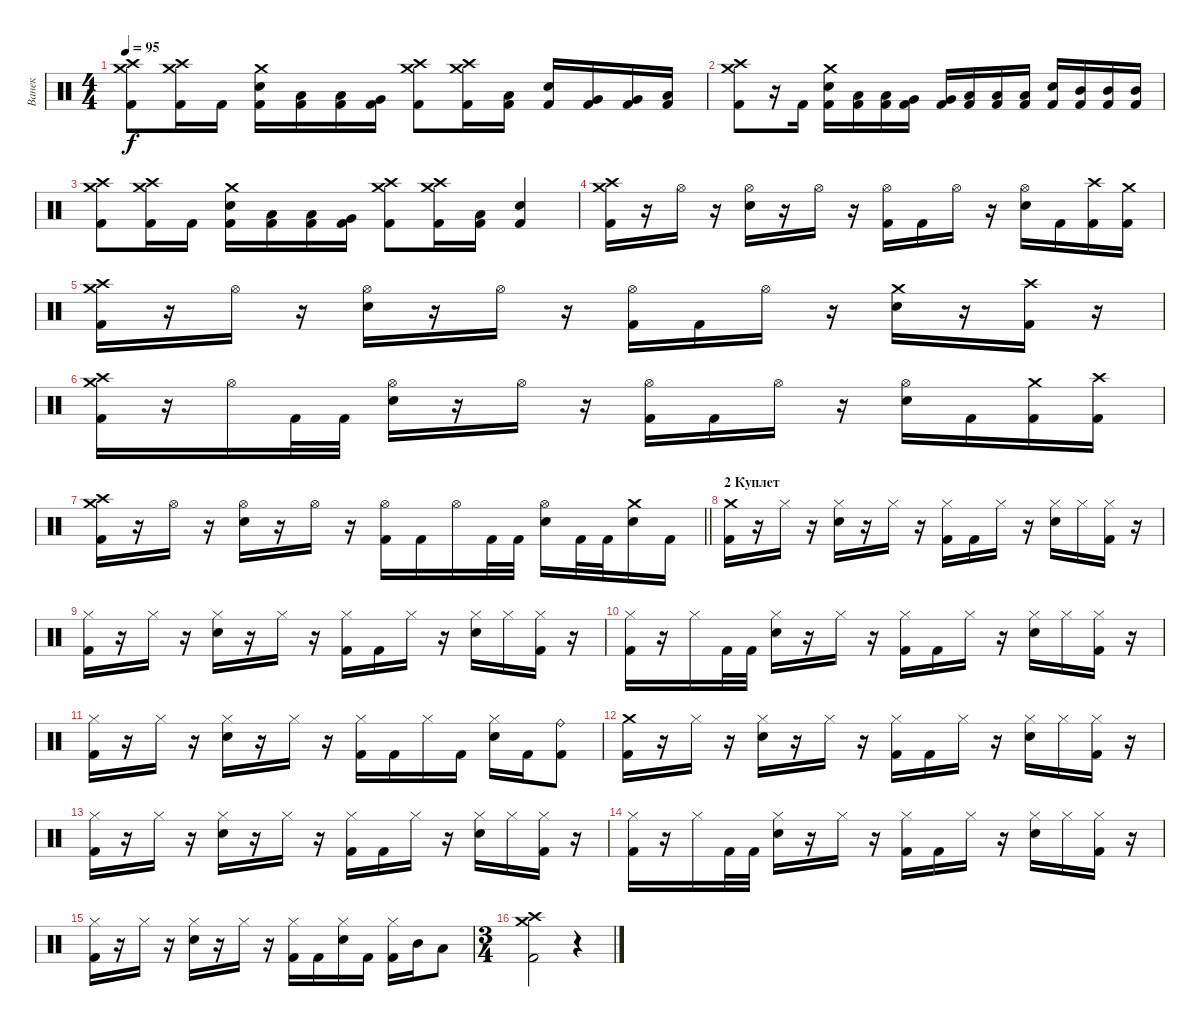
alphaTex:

\track ("Ванек" "Ванек") {instrument percussion}
\staff {score}
\articulation defaults
\ts (4 4)
\tempo 95
\clef neutral
\ks c
("Crash medium (hit)" "Crash high (hit)" "Kick (hit) 2").8{dy f} ("Crash medium (hit)" "Crash high (hit)" "Kick (hit) 2").16 "Kick (hit) 2".16 ("Crash medium (hit)" "Snare (hit) 2" "Kick (hit) 2").16 ("Low Floor Tom (hit)" "Kick (hit) 2").16 ("Low Floor Tom (hit)" "Kick (hit) 2").16 ("Very Low Tom (hit)" "Kick (hit) 2").16 ("Crash medium (hit)" "Crash high (hit)" "Kick (hit) 2").8 ("Crash medium (hit)" "Crash high (hit)" "Kick (hit) 2").16 ("Low Floor Tom (hit)" "Kick (hit) 2").16 ("Snare (hit) 2" "Kick (hit) 2").16 ("Very Low Tom (hit)" "Kick (hit) 2").16 ("Very Low Tom (hit)" "Kick (hit) 2").16 ("Low Tom (hit)" "Kick (hit) 2").16 |
("Crash medium (hit)" "Crash high (hit)" "Kick (hit) 2").8 r.16 "Kick (hit) 2".16 ("Crash medium (hit)" "Snare (hit) 2" "Kick (hit) 2").16 ("Low Floor Tom (hit)" "Kick (hit) 2").16 ("Low Floor Tom (hit)" "Kick (hit) 2").16 ("Very Low Tom (hit)" "Kick (hit) 2").16 ("Very Low Tom (hit)" "Kick (hit) 2").16 ("Low Tom (hit)" "Kick (hit) 2").16 ("Low Tom (hit)" "Kick (hit) 2").16 ("Low Tom (hit)" "Kick (hit) 2").16 ("Snare (hit) 2" "Kick (hit) 2").16 ("Mid Tom (hit)" "Kick (hit) 2").16 ("Mid Tom (hit)" "Kick (hit) 2").16 ("Mid Tom (hit)" "Kick (hit) 2").16 |
("Crash medium (hit)" "Crash high (hit)" "Kick (hit) 2").8 ("Crash medium (hit)" "Crash high (hit)" "Kick (hit) 2").16 "Kick (hit) 2".16 ("Crash medium (hit)" "Snare (hit) 2" "Kick (hit) 2").16 ("Low Floor Tom (hit)" "Kick (hit) 2").16 ("Low Floor Tom (hit)" "Kick (hit) 2").16 ("Very Low Tom (hit)" "Kick (hit) 2").16 ("Crash medium (hit)" "Crash high (hit)" "Kick (hit) 2").8 ("Crash medium (hit)" "Crash high (hit)" "Kick (hit) 2").16 ("Low Floor Tom (hit)" "Kick (hit) 2").16 ("Snare (hit) 2" "Kick (hit) 2").4 |
("Crash high (hit)" "Crash medium (hit)" "Kick (hit) 2").16 r.16 "Hi-Hat (open)".16 r.16 ("Hi-Hat (open)" "Snare (hit) 2").16 r.16 "Hi-Hat (open)".16 r.16 ("Hi-Hat (open)" "Kick (hit) 2").16 "Kick (hit) 2".16 "Hi-Hat (open)".16 r.16 ("Hi-Hat (open)" "Snare (hit) 2").16 "Kick (hit) 2".16 ("Crash high (hit)" "Kick (hit) 2").16 ("Crash medium (hit)" "Kick (hit) 2").16 |
("Crash high (hit)" "Crash medium (hit)" "Kick (hit) 2").16 r.16 "Hi-Hat (open)".16 r.16 ("Hi-Hat (open)" "Snare (hit) 2").16 r.16 "Hi-Hat (open)".16 r.16 ("Hi-Hat (open)" "Kick (hit) 2").16 "Kick (hit) 2".16 "Hi-Hat (open)".16 r.16 ("Crash medium (hit)" "Snare (hit) 2").16 r.16 ("Crash high (hit)" "Kick (hit) 2").16 r.16 |
("Crash high (hit)" "Crash medium (hit)" "Kick (hit) 2").16 r.16 "Hi-Hat (open)".16 "Kick (hit) 2".32 "Kick (hit) 2".32 ("Hi-Hat (open)" "Snare (hit) 2").16 r.16 "Hi-Hat (open)".16 r.16 ("Hi-Hat (open)" "Kick (hit) 2").16 "Kick (hit) 2".16 "Hi-Hat (open)".16 r.16 ("Hi-Hat (open)" "Snare (hit) 2").16 "Kick (hit) 2".16 ("Crash medium (hit)" "Kick (hit) 2").16 ("Crash high (hit)" "Kick (hit) 2").16 |
\barLineRight lightlight
("Crash high (hit)" "Crash medium (hit)" "Kick (hit) 2").16 r.16 "Hi-Hat (open)".16 r.16 ("Hi-Hat (open)" "Snare (hit) 2").16 r.16 "Hi-Hat (open)".16 r.16 ("Hi-Hat (open)" "Kick (hit) 2").16 "Kick (hit) 2".16 "Hi-Hat (open)".16 "Kick (hit) 2".32 "Kick (hit) 2".32 ("Hi-Hat (open)" "Snare (hit) 2").16 "Kick (hit) 2".32 "Kick (hit) 2".32 ("Crash medium (hit)" "Snare (hit) 2").16 "Kick (hit) 2".16 |
\section ("" "2 Куплет")
("Crash medium (hit)" "Kick (hit) 2").16 r.16 "Hi-Hat (closed)".16 r.16 ("Hi-Hat (closed)" "Snare (hit) 2").16 r.16 "Hi-Hat (closed)".16 r.16 ("Hi-Hat (closed)" "Kick (hit) 2").16 "Kick (hit) 2".16 "Hi-Hat (closed)".16 r.16 ("Hi-Hat (closed)" "Snare (hit) 2").16 "Hi-Hat (closed)".16 ("Hi-Hat (closed)" "Kick (hit) 2").16 r.16 |
("Hi-Hat (closed)" "Kick (hit) 2").16 r.16 "Hi-Hat (closed)".16 r.16 ("Hi-Hat (closed)" "Snare (hit) 2").16 r.16 "Hi-Hat (closed)".16 r.16 ("Hi-Hat (closed)" "Kick (hit) 2").16 "Kick (hit) 2".16 "Hi-Hat (closed)".16 r.16 ("Hi-Hat (closed)" "Snare (hit) 2").16 "Hi-Hat (closed)".16 ("Hi-Hat (closed)" "Kick (hit) 2").16 r.16 |
("Hi-Hat (closed)" "Kick (hit) 2").16 r.16 "Hi-Hat (closed)".16 "Kick (hit) 2".32 "Kick (hit) 2".32 ("Hi-Hat (closed)" "Snare (hit) 2").16 r.16 "Hi-Hat (closed)".16 r.16 ("Hi-Hat (closed)" "Kick (hit) 2").16 "Kick (hit) 2".16 "Hi-Hat (closed)".16 r.16 ("Hi-Hat (closed)" "Snare (hit) 2").16 "Hi-Hat (closed)".16 ("Hi-Hat (closed)" "Kick (hit) 2").16 r.16 |
("Hi-Hat (closed)" "Kick (hit) 2").16 r.16 "Hi-Hat (closed)".16 r.16 ("Hi-Hat (closed)" "Snare (hit) 2").16 r.16 "Hi-Hat (closed)".16 r.16 ("Hi-Hat (closed)" "Kick (hit) 2").16 "Kick (hit) 2".16 "Hi-Hat (closed)".16 "Kick (hit) 2".16 ("Hi-Hat (closed)" "Snare (hit) 2").16 "Kick (hit) 2".16 ("Ride (bell)" "Kick (hit) 2").8 |
("Crash medium (hit)" "Kick (hit) 2").16 r.16 "Hi-Hat (closed)".16 r.16 ("Hi-Hat (closed)" "Snare (hit) 2").16 r.16 "Hi-Hat (closed)".16 r.16 ("Hi-Hat (closed)" "Kick (hit) 2").16 "Kick (hit) 2".16 "Hi-Hat (closed)".16 r.16 ("Hi-Hat (closed)" "Snare (hit) 2").16 "Hi-Hat (closed)".16 ("Hi-Hat (closed)" "Kick (hit) 2").16 r.16 |
("Hi-Hat (closed)" "Kick (hit) 2").16 r.16 "Hi-Hat (closed)".16 r.16 ("Hi-Hat (closed)" "Snare (hit) 2").16 r.16 "Hi-Hat (closed)".16 r.16 ("Hi-Hat (closed)" "Kick (hit) 2").16 "Kick (hit) 2".16 "Hi-Hat (closed)".16 r.16 ("Hi-Hat (closed)" "Snare (hit) 2").16 "Hi-Hat (closed)".16 ("Hi-Hat (closed)" "Kick (hit) 2").16 r.16 |
("Hi-Hat (closed)" "Kick (hit) 2").16 r.16 "Hi-Hat (closed)".16 "Kick (hit) 2".32 "Kick (hit) 2".32 ("Hi-Hat (closed)" "Snare (hit) 2").16 r.16 "Hi-Hat (closed)".16 r.16 ("Hi-Hat (closed)" "Kick (hit) 2").16 "Kick (hit) 2".16 "Hi-Hat (closed)".16 r.16 ("Hi-Hat (closed)" "Snare (hit) 2").16 "Hi-Hat (closed)".16 ("Hi-Hat (closed)" "Kick (hit) 2").16 r.16 |
("Hi-Hat (closed)" "Kick (hit) 2").16 r.16 "Hi-Hat (closed)".16 r.16 ("Hi-Hat (closed)" "Snare (hit) 2").16 r.16 "Hi-Hat (closed)".16 r.16 ("Hi-Hat (closed)" "Kick (hit) 2").16 "Kick (hit) 2".16 ("Hi-Hat (closed)" "Snare (hit) 2").16 "Kick (hit) 2".16 ("Hi-Hat (closed)" "Kick (hit) 2").16 "Mid Tom (hit)".16 "Low Tom (hit)".8 |
\ts (3 4)
("Crash medium (hit)" "Crash high (hit)" "Kick (hit) 2").2 r.4
